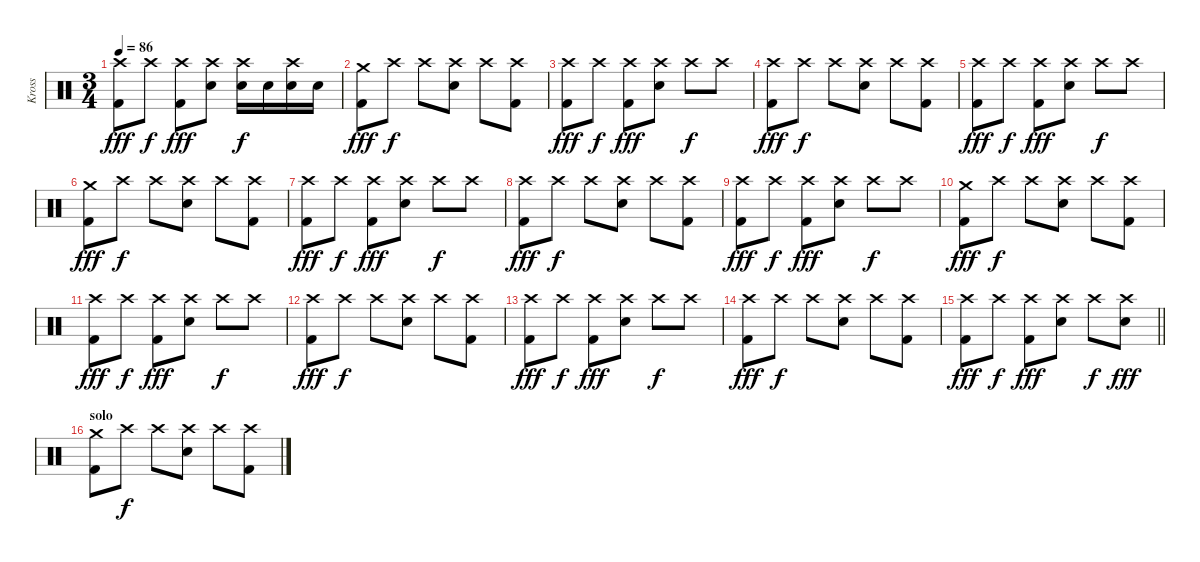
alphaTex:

\track ("Kross" "Kross") {instrument percussion}
\staff {score}
\articulation defaults
\ts (3 4)
\tempo 86
\clef neutral
\ks c
("Crash high (hit)" "Kick (hit) 2").8{dy fff} "Crash high (hit)".8{dy f} ("Crash high (hit)" "Kick (hit) 2").8{dy fff} ("Crash high (hit)" "Electric Snare (hit)").8 ("Crash high (hit)" "Electric Snare (hit)").16{dy f} "Electric Snare (hit)".16 ("Crash high (hit)" "Electric Snare (hit)").16 "Electric Snare (hit)".16 |
("Crash medium (hit)" "Kick (hit) 2").8{dy fff} "Crash high (hit)".8{dy f} "Crash high (hit)".8 ("Crash high (hit)" "Electric Snare (hit)").8 "Crash high (hit)".8 ("Crash high (hit)" "Kick (hit) 2").8 |
("Crash high (hit)" "Kick (hit) 2").8{dy fff} "Crash high (hit)".8{dy f} ("Crash high (hit)" "Kick (hit) 2").8{dy fff} ("Crash high (hit)" "Electric Snare (hit)").8 "Crash high (hit)".8{dy f} "Crash high (hit)".8 |
("Crash high (hit)" "Kick (hit) 2").8{dy fff} "Crash high (hit)".8{dy f} "Crash high (hit)".8 ("Crash high (hit)" "Electric Snare (hit)").8 "Crash high (hit)".8 ("Crash high (hit)" "Kick (hit) 2").8 |
("Crash high (hit)" "Kick (hit) 2").8{dy fff} "Crash high (hit)".8{dy f} ("Crash high (hit)" "Kick (hit) 2").8{dy fff} ("Crash high (hit)" "Electric Snare (hit)").8 "Crash high (hit)".8{dy f} "Crash high (hit)".8 |
("Crash medium (hit)" "Kick (hit) 2").8{dy fff} "Crash high (hit)".8{dy f} "Crash high (hit)".8 ("Crash high (hit)" "Electric Snare (hit)").8 "Crash high (hit)".8 ("Crash high (hit)" "Kick (hit) 2").8 |
("Crash high (hit)" "Kick (hit) 2").8{dy fff} "Crash high (hit)".8{dy f} ("Crash high (hit)" "Kick (hit) 2").8{dy fff} ("Crash high (hit)" "Electric Snare (hit)").8 "Crash high (hit)".8{dy f} "Crash high (hit)".8 |
("Crash high (hit)" "Kick (hit) 2").8{dy fff} "Crash high (hit)".8{dy f} "Crash high (hit)".8 ("Crash high (hit)" "Electric Snare (hit)").8 "Crash high (hit)".8 ("Crash high (hit)" "Kick (hit) 2").8 |
("Crash high (hit)" "Kick (hit) 2").8{dy fff} "Crash high (hit)".8{dy f} ("Crash high (hit)" "Kick (hit) 2").8{dy fff} ("Crash high (hit)" "Electric Snare (hit)").8 "Crash high (hit)".8{dy f} "Crash high (hit)".8 |
("Crash medium (hit)" "Kick (hit) 2").8{dy fff} "Crash high (hit)".8{dy f} "Crash high (hit)".8 ("Crash high (hit)" "Electric Snare (hit)").8 "Crash high (hit)".8 ("Crash high (hit)" "Kick (hit) 2").8 |
("Crash high (hit)" "Kick (hit) 2").8{dy fff} "Crash high (hit)".8{dy f} ("Crash high (hit)" "Kick (hit) 2").8{dy fff} ("Crash high (hit)" "Electric Snare (hit)").8 "Crash high (hit)".8{dy f} "Crash high (hit)".8 |
("Crash high (hit)" "Kick (hit) 2").8{dy fff} "Crash high (hit)".8{dy f} "Crash high (hit)".8 ("Crash high (hit)" "Electric Snare (hit)").8 "Crash high (hit)".8 ("Crash high (hit)" "Kick (hit) 2").8 |
("Crash high (hit)" "Kick (hit) 2").8{dy fff} "Crash high (hit)".8{dy f} ("Crash high (hit)" "Kick (hit) 2").8{dy fff} ("Crash high (hit)" "Electric Snare (hit)").8 "Crash high (hit)".8{dy f} "Crash high (hit)".8 |
("Crash high (hit)" "Kick (hit) 2").8{dy fff} "Crash high (hit)".8{dy f} "Crash high (hit)".8 ("Crash high (hit)" "Electric Snare (hit)").8 "Crash high (hit)".8 ("Crash high (hit)" "Kick (hit) 2").8 |
\barLineRight lightlight
("Crash high (hit)" "Kick (hit) 2").8{dy fff} "Crash high (hit)".8{dy f} ("Crash high (hit)" "Kick (hit) 2").8{dy fff} ("Crash high (hit)" "Electric Snare (hit)").8 "Crash high (hit)".8{dy f} ("Crash high (hit)" "Electric Snare (hit)").8{dy fff} |
\section ("" "solo")
("Crash medium (hit)" "Kick (hit) 2").8 "Crash high (hit)".8{dy f} "Crash high (hit)".8 ("Crash high (hit)" "Electric Snare (hit)").8 "Crash high (hit)".8 ("Crash high (hit)" "Kick (hit) 2").8
